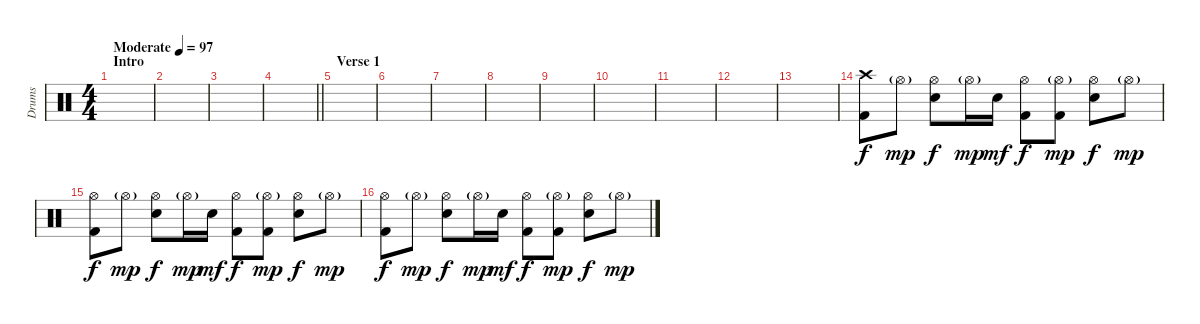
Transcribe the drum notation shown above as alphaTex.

\track ("Drums" "Drums") {instrument percussion}
\staff {score}
\articulation defaults
\ts (4 4)
\section ("" "Intro")
\tempo (97 "Moderate")
\clef neutral
\ks c
|
|
|
\barLineRight lightlight
|
\section ("" "Verse 1")
|
|
|
|
|
|
|
|
|
("Crash high (hit)" "Kick (hit) 2").8 "Hi-Hat (open)"{g}.8{dy mp} ("Hi-Hat (open)" "Electric Snare (hit)").8{dy f} "Hi-Hat (open)"{g}.16{dy mp} "Electric Snare (hit)".16{dy mf} ("Hi-Hat (open)" "Kick (hit) 2").8{dy f} ("Hi-Hat (open)"{g} "Kick (hit) 2").8{dy mp} ("Hi-Hat (open)" "Electric Snare (hit)").8{dy f} "Hi-Hat (open)"{g}.8{dy mp} |
("Hi-Hat (open)" "Kick (hit) 2").8{dy f} "Hi-Hat (open)"{g}.8{dy mp} ("Hi-Hat (open)" "Electric Snare (hit)").8{dy f} "Hi-Hat (open)"{g}.16{dy mp} "Electric Snare (hit)".16{dy mf} ("Hi-Hat (open)" "Kick (hit) 2").8{dy f} ("Hi-Hat (open)"{g} "Kick (hit) 2").8{dy mp} ("Hi-Hat (open)" "Electric Snare (hit)").8{dy f} "Hi-Hat (open)"{g}.8{dy mp} |
("Hi-Hat (open)" "Kick (hit) 2").8{dy f} "Hi-Hat (open)"{g}.8{dy mp} ("Hi-Hat (open)" "Electric Snare (hit)").8{dy f} "Hi-Hat (open)"{g}.16{dy mp} "Electric Snare (hit)".16{dy mf} ("Hi-Hat (open)" "Kick (hit) 2").8{dy f} ("Hi-Hat (open)"{g} "Kick (hit) 2").8{dy mp} ("Hi-Hat (open)" "Electric Snare (hit)").8{dy f} "Hi-Hat (open)"{g}.8{dy mp}
